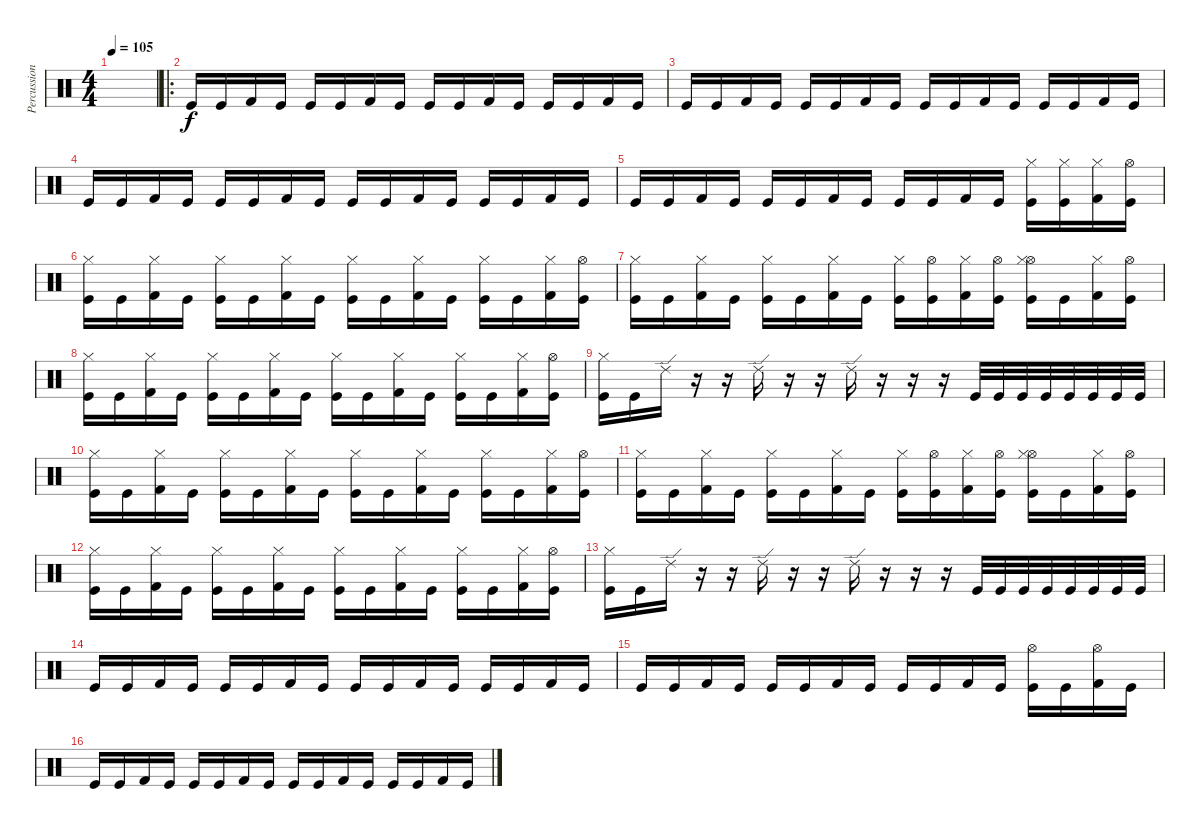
\track ("Percussion" "Percussion") {instrument percussion}
\staff {score}
\articulation defaults
\ts (4 4)
\tempo 105
\clef neutral
\ks c
|
\ro "Kick (hit)".16 "Kick (hit)".16 "Kick (hit) 2".16 "Kick (hit)".16 "Kick (hit)".16 "Kick (hit)".16 "Kick (hit) 2".16 "Kick (hit)".16 "Kick (hit)".16 "Kick (hit)".16 "Kick (hit) 2".16 "Kick (hit)".16 "Kick (hit)".16 "Kick (hit)".16 "Kick (hit) 2".16 "Kick (hit)".16
|
"Kick (hit)".16 "Kick (hit)".16 "Kick (hit) 2".16 "Kick (hit)".16 "Kick (hit)".16 "Kick (hit)".16 "Kick (hit) 2".16 "Kick (hit)".16 "Kick (hit)".16 "Kick (hit)".16 "Kick (hit) 2".16 "Kick (hit)".16 "Kick (hit)".16 "Kick (hit)".16 "Kick (hit) 2".16 "Kick (hit)".16 |
"Kick (hit)".16 "Kick (hit)".16 "Kick (hit) 2".16 "Kick (hit)".16 "Kick (hit)".16 "Kick (hit)".16 "Kick (hit) 2".16 "Kick (hit)".16 "Kick (hit)".16 "Kick (hit)".16 "Kick (hit) 2".16 "Kick (hit)".16 "Kick (hit)".16 "Kick (hit)".16 "Kick (hit) 2".16 "Kick (hit)".16 |
"Kick (hit)".16 "Kick (hit)".16 "Kick (hit) 2".16 "Kick (hit)".16 "Kick (hit)".16 "Kick (hit)".16 "Kick (hit) 2".16 "Kick (hit)".16 "Kick (hit)".16 "Kick (hit)".16 "Kick (hit) 2".16 "Kick (hit)".16 ("Hi-Hat (closed)" "Kick (hit)").16 ("Hi-Hat (closed)" "Kick (hit)").16 ("Hi-Hat (closed)" "Kick (hit) 2").16 ("Hi-Hat (open)" "Kick (hit)").16 |
("Hi-Hat (closed)" "Kick (hit)").16 "Kick (hit)".16 ("Hi-Hat (closed)" "Kick (hit) 2").16 "Kick (hit)".16 ("Hi-Hat (closed)" "Kick (hit)").16 "Kick (hit)".16 ("Hi-Hat (closed)" "Kick (hit) 2").16 "Kick (hit)".16 ("Hi-Hat (closed)" "Kick (hit)").16 "Kick (hit)".16 ("Hi-Hat (closed)" "Kick (hit) 2").16 "Kick (hit)".16 ("Hi-Hat (closed)" "Kick (hit)").16 "Kick (hit)".16 ("Hi-Hat (closed)" "Kick (hit) 2").16 ("Hi-Hat (open)" "Kick (hit)").16 |
("Hi-Hat (closed)" "Kick (hit)").16 "Kick (hit)".16 ("Hi-Hat (closed)" "Kick (hit) 2").16 "Kick (hit)".16 ("Hi-Hat (closed)" "Kick (hit)").16 "Kick (hit)".16 ("Hi-Hat (closed)" "Kick (hit) 2").16 "Kick (hit)".16 ("Hi-Hat (closed)" "Kick (hit)").16 ("Hi-Hat (open)" "Kick (hit)").16 ("Hi-Hat (closed)" "Kick (hit) 2").16 ("Hi-Hat (open)" "Kick (hit)").16 ("Hi-Hat (open)" "Hi-Hat (closed)" "Kick (hit)").16 "Kick (hit)".16 ("Hi-Hat (closed)" "Kick (hit) 2").16 ("Hi-Hat (open)" "Kick (hit)").16 |
("Hi-Hat (closed)" "Kick (hit)").16 "Kick (hit)".16 ("Hi-Hat (closed)" "Kick (hit) 2").16 "Kick (hit)".16 ("Hi-Hat (closed)" "Kick (hit)").16 "Kick (hit)".16 ("Hi-Hat (closed)" "Kick (hit) 2").16 "Kick (hit)".16 ("Hi-Hat (closed)" "Kick (hit)").16 "Kick (hit)".16 ("Hi-Hat (closed)" "Kick (hit) 2").16 "Kick (hit)".16 ("Hi-Hat (closed)" "Kick (hit)").16 "Kick (hit)".16 ("Hi-Hat (closed)" "Kick (hit) 2").16 ("Hi-Hat (open)" "Kick (hit)").16 |
("Hi-Hat (closed)" "Kick (hit)").16 "Kick (hit)".16 "Ride (edge) 2".16 r.16 r.16 "Ride (edge) 2".16 r.16 r.16 "Ride (edge) 2".16 r.16 r.16 r.16 "Kick (hit)".32 "Kick (hit)".32 "Kick (hit)".32 "Kick (hit)".32 "Kick (hit)".32 "Kick (hit)".32 "Kick (hit)".32 "Kick (hit)".32 |
("Hi-Hat (closed)" "Kick (hit)").16 "Kick (hit)".16 ("Hi-Hat (closed)" "Kick (hit) 2").16 "Kick (hit)".16 ("Hi-Hat (closed)" "Kick (hit)").16 "Kick (hit)".16 ("Hi-Hat (closed)" "Kick (hit) 2").16 "Kick (hit)".16 ("Hi-Hat (closed)" "Kick (hit)").16 "Kick (hit)".16 ("Hi-Hat (closed)" "Kick (hit) 2").16 "Kick (hit)".16 ("Hi-Hat (closed)" "Kick (hit)").16 "Kick (hit)".16 ("Hi-Hat (closed)" "Kick (hit) 2").16 ("Hi-Hat (open)" "Kick (hit)").16 |
("Hi-Hat (closed)" "Kick (hit)").16 "Kick (hit)".16 ("Hi-Hat (closed)" "Kick (hit) 2").16 "Kick (hit)".16 ("Hi-Hat (closed)" "Kick (hit)").16 "Kick (hit)".16 ("Hi-Hat (closed)" "Kick (hit) 2").16 "Kick (hit)".16 ("Hi-Hat (closed)" "Kick (hit)").16 ("Hi-Hat (open)" "Kick (hit)").16 ("Hi-Hat (closed)" "Kick (hit) 2").16 ("Hi-Hat (open)" "Kick (hit)").16 ("Hi-Hat (open)" "Hi-Hat (closed)" "Kick (hit)").16 "Kick (hit)".16 ("Hi-Hat (closed)" "Kick (hit) 2").16 ("Hi-Hat (open)" "Kick (hit)").16 |
("Hi-Hat (closed)" "Kick (hit)").16 "Kick (hit)".16 ("Hi-Hat (closed)" "Kick (hit) 2").16 "Kick (hit)".16 ("Hi-Hat (closed)" "Kick (hit)").16 "Kick (hit)".16 ("Hi-Hat (closed)" "Kick (hit) 2").16 "Kick (hit)".16 ("Hi-Hat (closed)" "Kick (hit)").16 "Kick (hit)".16 ("Hi-Hat (closed)" "Kick (hit) 2").16 "Kick (hit)".16 ("Hi-Hat (closed)" "Kick (hit)").16 "Kick (hit)".16 ("Hi-Hat (closed)" "Kick (hit) 2").16 ("Hi-Hat (open)" "Kick (hit)").16 |
("Hi-Hat (closed)" "Kick (hit)").16 "Kick (hit)".16 "Ride (edge) 2".16 r.16 r.16 "Ride (edge) 2".16 r.16 r.16 "Ride (edge) 2".16 r.16 r.16 r.16 "Kick (hit)".32 "Kick (hit)".32 "Kick (hit)".32 "Kick (hit)".32 "Kick (hit)".32 "Kick (hit)".32 "Kick (hit)".32 "Kick (hit)".32 |
"Kick (hit)".16 "Kick (hit)".16 "Kick (hit) 2".16 "Kick (hit)".16 "Kick (hit)".16 "Kick (hit)".16 "Kick (hit) 2".16 "Kick (hit)".16 "Kick (hit)".16 "Kick (hit)".16 "Kick (hit) 2".16 "Kick (hit)".16 "Kick (hit)".16 "Kick (hit)".16 "Kick (hit) 2".16 "Kick (hit)".16 |
"Kick (hit)".16 "Kick (hit)".16 "Kick (hit) 2".16 "Kick (hit)".16 "Kick (hit)".16 "Kick (hit)".16 "Kick (hit) 2".16 "Kick (hit)".16 "Kick (hit)".16 "Kick (hit)".16 "Kick (hit) 2".16 "Kick (hit)".16 ("Hi-Hat (open)" "Kick (hit)").16 "Kick (hit)".16 ("Hi-Hat (open)" "Kick (hit) 2").16 "Kick (hit)".16 |
"Kick (hit)".16 "Kick (hit)".16 "Kick (hit) 2".16 "Kick (hit)".16 "Kick (hit)".16 "Kick (hit)".16 "Kick (hit) 2".16 "Kick (hit)".16 "Kick (hit)".16 "Kick (hit)".16 "Kick (hit) 2".16 "Kick (hit)".16 "Kick (hit)".16 "Kick (hit)".16 "Kick (hit) 2".16 "Kick (hit)".16
